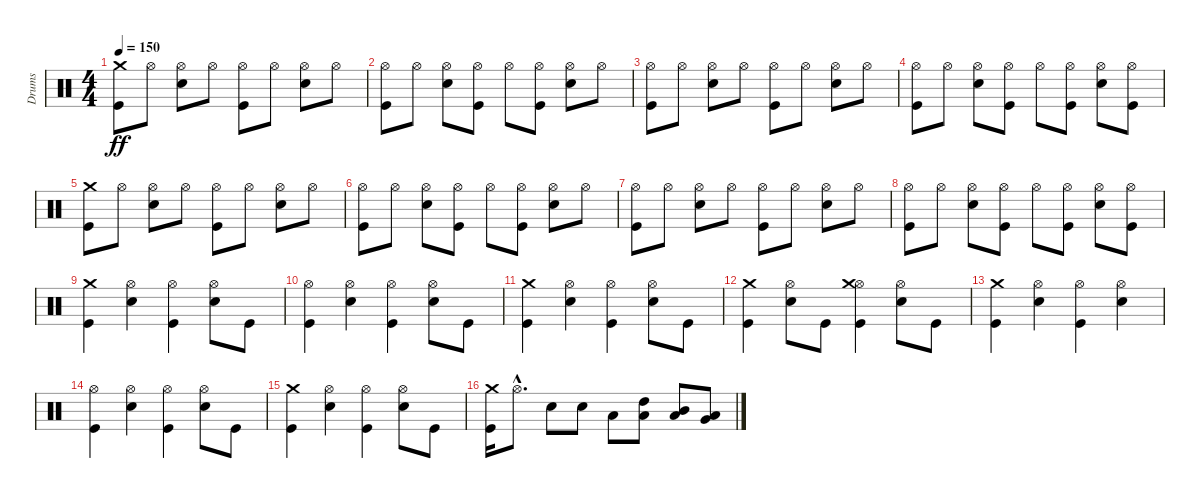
\track ("Drums" "Drums") {instrument percussion}
\staff {score}
\articulation defaults
\ts (4 4)
\tempo 150
\clef neutral
\ks c
("Kick (hit)" "Crash medium (hit)").8{dy ff} "Hi-Hat (open)".8 ("Electric Snare (hit)" "Hi-Hat (open)").8 "Hi-Hat (open)".8 ("Kick (hit)" "Hi-Hat (open)").8 "Hi-Hat (open)".8 ("Electric Snare (hit)" "Hi-Hat (open)").8 "Hi-Hat (open)".8 |
("Kick (hit)" "Hi-Hat (open)").8 "Hi-Hat (open)".8 ("Electric Snare (hit)" "Hi-Hat (open)").8 ("Kick (hit)" "Hi-Hat (open)").8 "Hi-Hat (open)".8 ("Kick (hit)" "Hi-Hat (open)").8 ("Electric Snare (hit)" "Hi-Hat (open)").8 "Hi-Hat (open)".8 |
("Kick (hit)" "Hi-Hat (open)").8 "Hi-Hat (open)".8 ("Electric Snare (hit)" "Hi-Hat (open)").8 "Hi-Hat (open)".8 ("Kick (hit)" "Hi-Hat (open)").8 "Hi-Hat (open)".8 ("Electric Snare (hit)" "Hi-Hat (open)").8 "Hi-Hat (open)".8 |
("Kick (hit)" "Hi-Hat (open)").8 "Hi-Hat (open)".8 ("Electric Snare (hit)" "Hi-Hat (open)").8 ("Kick (hit)" "Hi-Hat (open)").8 "Hi-Hat (open)".8 ("Kick (hit)" "Hi-Hat (open)").8 ("Electric Snare (hit)" "Hi-Hat (open)").8 ("Kick (hit)" "Hi-Hat (open)").8 |
("Kick (hit)" "Crash medium (hit)").8 "Hi-Hat (open)".8 ("Electric Snare (hit)" "Hi-Hat (open)").8 "Hi-Hat (open)".8 ("Kick (hit)" "Hi-Hat (open)").8 "Hi-Hat (open)".8 ("Electric Snare (hit)" "Hi-Hat (open)").8 "Hi-Hat (open)".8 |
("Kick (hit)" "Hi-Hat (open)").8 "Hi-Hat (open)".8 ("Electric Snare (hit)" "Hi-Hat (open)").8 ("Kick (hit)" "Hi-Hat (open)").8 "Hi-Hat (open)".8 ("Kick (hit)" "Hi-Hat (open)").8 ("Electric Snare (hit)" "Hi-Hat (open)").8 "Hi-Hat (open)".8 |
("Kick (hit)" "Hi-Hat (open)").8 "Hi-Hat (open)".8 ("Electric Snare (hit)" "Hi-Hat (open)").8 "Hi-Hat (open)".8 ("Kick (hit)" "Hi-Hat (open)").8 "Hi-Hat (open)".8 ("Electric Snare (hit)" "Hi-Hat (open)").8 "Hi-Hat (open)".8 |
("Kick (hit)" "Hi-Hat (open)").8 "Hi-Hat (open)".8 ("Electric Snare (hit)" "Hi-Hat (open)").8 ("Kick (hit)" "Hi-Hat (open)").8 "Hi-Hat (open)".8 ("Kick (hit)" "Hi-Hat (open)").8 ("Electric Snare (hit)" "Hi-Hat (open)").8 ("Kick (hit)" "Hi-Hat (open)").8 |
("Kick (hit)" "Crash medium (hit)").4 ("Electric Snare (hit)" "Hi-Hat (open)").4 ("Kick (hit)" "Hi-Hat (open)").4 ("Electric Snare (hit)" "Hi-Hat (open)").8 "Kick (hit)".8 |
("Kick (hit)" "Hi-Hat (open)").4 ("Electric Snare (hit)" "Hi-Hat (open)").4 ("Kick (hit)" "Hi-Hat (open)").4 ("Electric Snare (hit)" "Hi-Hat (open)").8 "Kick (hit)".8 |
("Kick (hit)" "Crash medium (hit)").4 ("Electric Snare (hit)" "Hi-Hat (open)").4 ("Kick (hit)" "Hi-Hat (open)").4 ("Electric Snare (hit)" "Hi-Hat (open)").8 "Kick (hit)".8 |
("Kick (hit)" "Crash medium (hit)").4 ("Electric Snare (hit)" "Hi-Hat (open)").8 "Kick (hit)".8 ("Kick (hit)" "Hi-Hat (open)" "Crash medium (hit)").4 ("Electric Snare (hit)" "Hi-Hat (open)").8 "Kick (hit)".8 |
("Kick (hit)" "Crash medium (hit)").4 ("Electric Snare (hit)" "Hi-Hat (open)").4 ("Kick (hit)" "Hi-Hat (open)").4 ("Electric Snare (hit)" "Hi-Hat (open)").4 |
("Kick (hit)" "Hi-Hat (open)").4 ("Electric Snare (hit)" "Hi-Hat (open)").4 ("Kick (hit)" "Hi-Hat (open)").4 ("Electric Snare (hit)" "Hi-Hat (open)").8 "Kick (hit)".8 |
("Kick (hit)" "Crash medium (hit)").4 ("Electric Snare (hit)" "Hi-Hat (open)").4 ("Kick (hit)" "Hi-Hat (open)").4 ("Electric Snare (hit)" "Hi-Hat (open)").8 "Kick (hit)".8 |
("Kick (hit)" "Crash medium (hit)").16 "Hi-Hat (open)"{hac}.8{d} "Electric Snare (hit)".8 "Electric Snare (hit)".8 "Low Floor Tom (hit)".8 ("Low Tom (hit)" "High Tom (hit)").8 ("Low Tom (hit)" "Mid Tom (hit)").8 ("Very Low Tom (hit)" "Low Tom (hit)").8
